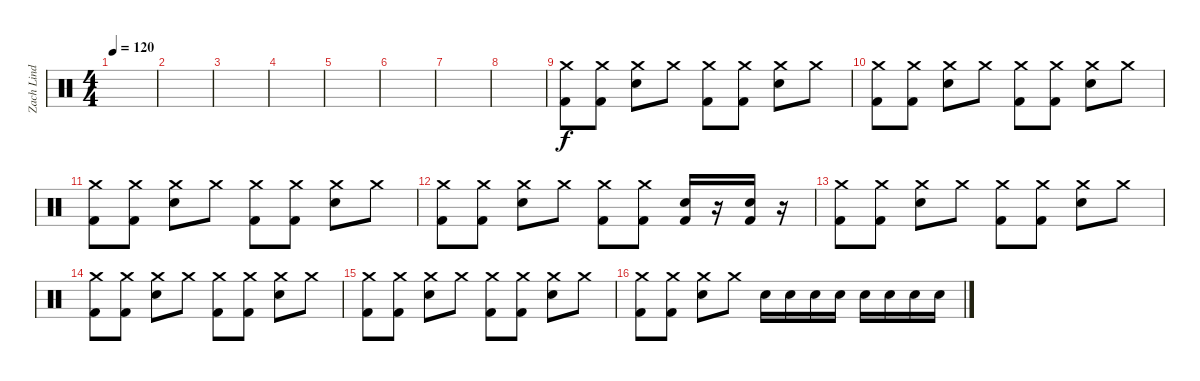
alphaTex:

\track ("Zach Lind  (Drums)" "Zach Lind ") {instrument percussion}
\staff {score}
\articulation defaults
\ts (4 4)
\tempo 120
\clef neutral
\ks c
|
|
|
|
|
|
|
|
("Crash medium (hit)" "Kick (hit) 2").8 ("Crash medium (hit)" "Kick (hit) 2").8 ("Crash medium (hit)" "Electric Snare (hit)").8 "Crash medium (hit)".8 ("Crash medium (hit)" "Kick (hit) 2").8 ("Crash medium (hit)" "Kick (hit) 2").8 ("Crash medium (hit)" "Electric Snare (hit)").8 "Crash medium (hit)".8 |
("Crash medium (hit)" "Kick (hit) 2").8 ("Crash medium (hit)" "Kick (hit) 2").8 ("Crash medium (hit)" "Electric Snare (hit)").8 "Crash medium (hit)".8 ("Crash medium (hit)" "Kick (hit) 2").8 ("Crash medium (hit)" "Kick (hit) 2").8 ("Crash medium (hit)" "Electric Snare (hit)").8 "Crash medium (hit)".8 |
("Crash medium (hit)" "Kick (hit) 2").8 ("Crash medium (hit)" "Kick (hit) 2").8 ("Crash medium (hit)" "Electric Snare (hit)").8 "Crash medium (hit)".8 ("Crash medium (hit)" "Kick (hit) 2").8 ("Crash medium (hit)" "Kick (hit) 2").8 ("Crash medium (hit)" "Electric Snare (hit)").8 "Crash medium (hit)".8 |
("Crash medium (hit)" "Kick (hit) 2").8 ("Crash medium (hit)" "Kick (hit) 2").8 ("Crash medium (hit)" "Electric Snare (hit)").8 "Crash medium (hit)".8 ("Crash medium (hit)" "Kick (hit) 2").8 ("Crash medium (hit)" "Kick (hit) 2").8 ("Kick (hit) 2" "Electric Snare (hit)").16 r.16 ("Kick (hit) 2" "Electric Snare (hit)").16 r.16 |
("Crash medium (hit)" "Kick (hit) 2").8 ("Crash medium (hit)" "Kick (hit) 2").8 ("Crash medium (hit)" "Electric Snare (hit)").8 "Crash medium (hit)".8 ("Crash medium (hit)" "Kick (hit) 2").8 ("Crash medium (hit)" "Kick (hit) 2").8 ("Crash medium (hit)" "Electric Snare (hit)").8 "Crash medium (hit)".8 |
("Crash medium (hit)" "Kick (hit) 2").8 ("Crash medium (hit)" "Kick (hit) 2").8 ("Crash medium (hit)" "Electric Snare (hit)").8 "Crash medium (hit)".8 ("Crash medium (hit)" "Kick (hit) 2").8 ("Crash medium (hit)" "Kick (hit) 2").8 ("Crash medium (hit)" "Electric Snare (hit)").8 "Crash medium (hit)".8 |
("Crash medium (hit)" "Kick (hit) 2").8 ("Crash medium (hit)" "Kick (hit) 2").8 ("Crash medium (hit)" "Electric Snare (hit)").8 "Crash medium (hit)".8 ("Crash medium (hit)" "Kick (hit) 2").8 ("Crash medium (hit)" "Kick (hit) 2").8 ("Crash medium (hit)" "Electric Snare (hit)").8 "Crash medium (hit)".8 |
("Crash medium (hit)" "Kick (hit) 2").8 ("Crash medium (hit)" "Kick (hit) 2").8 ("Crash medium (hit)" "Electric Snare (hit)").8 "Crash medium (hit)".8 "Electric Snare (hit)".16 "Electric Snare (hit)".16 "Electric Snare (hit)".16 "Electric Snare (hit)".16 "Electric Snare (hit)".16 "Electric Snare (hit)".16 "Electric Snare (hit)".16 "Electric Snare (hit)".16
